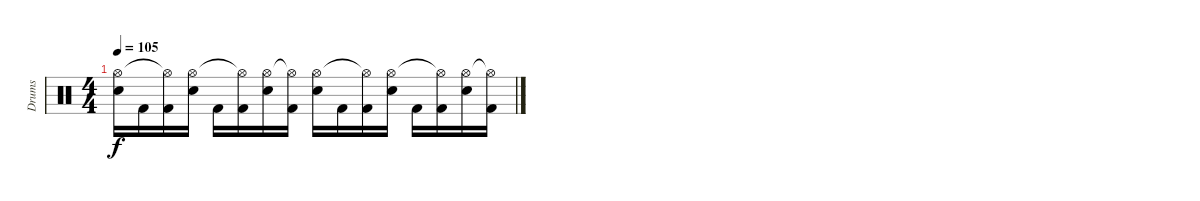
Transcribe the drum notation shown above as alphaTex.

\track ("Drums" "Drums") {instrument percussion}
\staff {score}
\articulation defaults
\ts (4 4)
\tempo 105
\clef neutral
\ks c
("Snare (hit) 2" "Hi-Hat (open)").16{dy f} "Kick (hit) 2".16 ("Kick (hit) 2" "Hi-Hat (open)"{t}).16 ("Snare (hit) 2" "Hi-Hat (open)").16 "Kick (hit) 2".16 ("Kick (hit) 2" "Hi-Hat (open)"{t}).16 ("Snare (hit) 2" "Hi-Hat (open)").16 ("Kick (hit) 2" "Hi-Hat (open)"{t}).16 ("Snare (hit) 2" "Hi-Hat (open)").16 "Kick (hit) 2".16 ("Kick (hit) 2" "Hi-Hat (open)"{t}).16 ("Snare (hit) 2" "Hi-Hat (open)").16 "Kick (hit) 2".16 ("Kick (hit) 2" "Hi-Hat (open)"{t}).16 ("Snare (hit) 2" "Hi-Hat (open)").16 ("Kick (hit) 2" "Hi-Hat (open)"{t}).16
